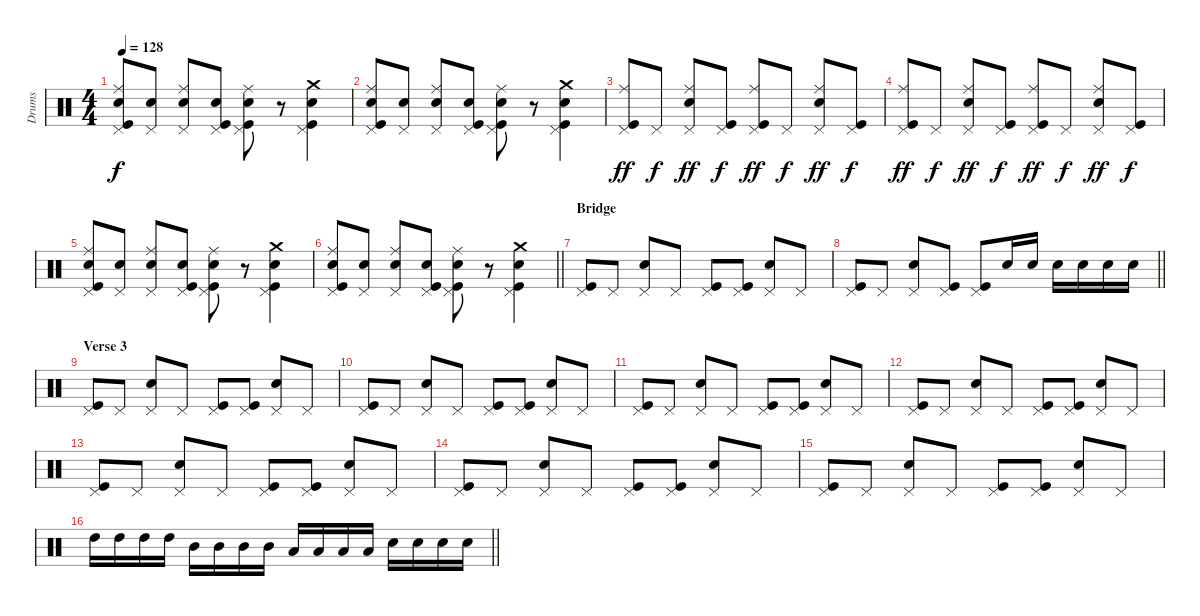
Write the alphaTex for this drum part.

\track ("Drums" "Drums") {instrument percussion}
\staff {score}
\articulation defaults
\ts (4 4)
\tempo 128
\clef neutral
\ks c
("Ride (middle)" "Pedal Hi-Hat (hit)" "Snare (hit) 2" "Kick (hit)").8{dy f} ("Pedal Hi-Hat (hit)" "Snare (hit) 2").8 ("Ride (middle)" "Pedal Hi-Hat (hit)" "Snare (hit) 2").8 ("Pedal Hi-Hat (hit)" "Snare (hit) 2" "Kick (hit)").8 ("Ride (middle)" "Pedal Hi-Hat (hit)" "Snare (hit) 2" "Kick (hit)").8 r.8 ("Crash medium (hit)" "Pedal Hi-Hat (hit)" "Snare (hit) 2" "Kick (hit)").4 |
("Ride (middle)" "Pedal Hi-Hat (hit)" "Snare (hit) 2" "Kick (hit)").8 ("Pedal Hi-Hat (hit)" "Snare (hit) 2").8 ("Ride (middle)" "Pedal Hi-Hat (hit)" "Snare (hit) 2").8 ("Pedal Hi-Hat (hit)" "Snare (hit) 2" "Kick (hit)").8 ("Ride (middle)" "Pedal Hi-Hat (hit)" "Snare (hit) 2" "Kick (hit)").8 r.8 ("Crash medium (hit)" "Pedal Hi-Hat (hit)" "Snare (hit) 2" "Kick (hit)").4 |
("Ride (middle)" "Pedal Hi-Hat (hit)" "Kick (hit)").8{dy ff} "Pedal Hi-Hat (hit)".8{dy f} ("Ride (middle)" "Snare (hit) 2" "Pedal Hi-Hat (hit)").8{dy ff} ("Pedal Hi-Hat (hit)" "Kick (hit)").8{dy f} ("Ride (middle)" "Pedal Hi-Hat (hit)" "Kick (hit)").8{dy ff} "Pedal Hi-Hat (hit)".8{dy f} ("Ride (middle)" "Snare (hit) 2" "Pedal Hi-Hat (hit)").8{dy ff} ("Pedal Hi-Hat (hit)" "Kick (hit)").8{dy f} |
("Ride (middle)" "Pedal Hi-Hat (hit)" "Kick (hit)").8{dy ff} "Pedal Hi-Hat (hit)".8{dy f} ("Ride (middle)" "Snare (hit) 2" "Pedal Hi-Hat (hit)").8{dy ff} ("Pedal Hi-Hat (hit)" "Kick (hit)").8{dy f} ("Ride (middle)" "Pedal Hi-Hat (hit)" "Kick (hit)").8{dy ff} "Pedal Hi-Hat (hit)".8{dy f} ("Ride (middle)" "Snare (hit) 2" "Pedal Hi-Hat (hit)").8{dy ff} ("Pedal Hi-Hat (hit)" "Kick (hit)").8{dy f} |
("Ride (middle)" "Pedal Hi-Hat (hit)" "Snare (hit) 2" "Kick (hit)").8 ("Pedal Hi-Hat (hit)" "Snare (hit) 2").8 ("Ride (middle)" "Pedal Hi-Hat (hit)" "Snare (hit) 2").8 ("Pedal Hi-Hat (hit)" "Snare (hit) 2" "Kick (hit)").8 ("Ride (middle)" "Pedal Hi-Hat (hit)" "Snare (hit) 2" "Kick (hit)").8 r.8 ("Crash medium (hit)" "Pedal Hi-Hat (hit)" "Snare (hit) 2" "Kick (hit)").4 |
\barLineRight lightlight
("Ride (middle)" "Pedal Hi-Hat (hit)" "Snare (hit) 2" "Kick (hit)").8 ("Pedal Hi-Hat (hit)" "Snare (hit) 2").8 ("Ride (middle)" "Pedal Hi-Hat (hit)" "Snare (hit) 2").8 ("Pedal Hi-Hat (hit)" "Snare (hit) 2" "Kick (hit)").8 ("Ride (middle)" "Pedal Hi-Hat (hit)" "Snare (hit) 2" "Kick (hit)").8 r.8 ("Crash medium (hit)" "Pedal Hi-Hat (hit)" "Snare (hit) 2" "Kick (hit)").4 |
\section ("" "Bridge")
("Pedal Hi-Hat (hit)" "Kick (hit)").8 "Pedal Hi-Hat (hit)".8 ("Snare (hit) 2" "Pedal Hi-Hat (hit)").8 "Pedal Hi-Hat (hit)".8 ("Pedal Hi-Hat (hit)" "Kick (hit)").8 ("Pedal Hi-Hat (hit)" "Kick (hit)").8 ("Snare (hit) 2" "Pedal Hi-Hat (hit)").8 "Pedal Hi-Hat (hit)".8 |
\barLineRight lightlight
("Pedal Hi-Hat (hit)" "Kick (hit)").8 "Pedal Hi-Hat (hit)".8 ("Snare (hit) 2" "Pedal Hi-Hat (hit)").8 ("Pedal Hi-Hat (hit)" "Kick (hit)").8 ("Pedal Hi-Hat (hit)" "Kick (hit)").8 "Snare (hit) 2".16 "Snare (hit) 2".16 "Snare (hit) 2".16 "Snare (hit) 2".16 "Snare (hit) 2".16 "Snare (hit) 2".16 |
\section ("" "Verse 3")
("Pedal Hi-Hat (hit)" "Kick (hit)").8 "Pedal Hi-Hat (hit)".8 ("Snare (hit) 2" "Pedal Hi-Hat (hit)").8 "Pedal Hi-Hat (hit)".8 ("Pedal Hi-Hat (hit)" "Kick (hit)").8 ("Pedal Hi-Hat (hit)" "Kick (hit)").8 ("Snare (hit) 2" "Pedal Hi-Hat (hit)").8 "Pedal Hi-Hat (hit)".8 |
("Pedal Hi-Hat (hit)" "Kick (hit)").8 "Pedal Hi-Hat (hit)".8 ("Snare (hit) 2" "Pedal Hi-Hat (hit)").8 "Pedal Hi-Hat (hit)".8 ("Pedal Hi-Hat (hit)" "Kick (hit)").8 ("Pedal Hi-Hat (hit)" "Kick (hit)").8 ("Snare (hit) 2" "Pedal Hi-Hat (hit)").8 "Pedal Hi-Hat (hit)".8 |
("Pedal Hi-Hat (hit)" "Kick (hit)").8 "Pedal Hi-Hat (hit)".8 ("Snare (hit) 2" "Pedal Hi-Hat (hit)").8 "Pedal Hi-Hat (hit)".8 ("Pedal Hi-Hat (hit)" "Kick (hit)").8 ("Pedal Hi-Hat (hit)" "Kick (hit)").8 ("Snare (hit) 2" "Pedal Hi-Hat (hit)").8 "Pedal Hi-Hat (hit)".8 |
("Pedal Hi-Hat (hit)" "Kick (hit)").8 "Pedal Hi-Hat (hit)".8 ("Snare (hit) 2" "Pedal Hi-Hat (hit)").8 "Pedal Hi-Hat (hit)".8 ("Pedal Hi-Hat (hit)" "Kick (hit)").8 ("Pedal Hi-Hat (hit)" "Kick (hit)").8 ("Snare (hit) 2" "Pedal Hi-Hat (hit)").8 "Pedal Hi-Hat (hit)".8 |
("Pedal Hi-Hat (hit)" "Kick (hit)").8 "Pedal Hi-Hat (hit)".8 ("Snare (hit) 2" "Pedal Hi-Hat (hit)").8 "Pedal Hi-Hat (hit)".8 ("Pedal Hi-Hat (hit)" "Kick (hit)").8 ("Pedal Hi-Hat (hit)" "Kick (hit)").8 ("Snare (hit) 2" "Pedal Hi-Hat (hit)").8 "Pedal Hi-Hat (hit)".8 |
("Pedal Hi-Hat (hit)" "Kick (hit)").8 "Pedal Hi-Hat (hit)".8 ("Snare (hit) 2" "Pedal Hi-Hat (hit)").8 "Pedal Hi-Hat (hit)".8 ("Pedal Hi-Hat (hit)" "Kick (hit)").8 ("Pedal Hi-Hat (hit)" "Kick (hit)").8 ("Snare (hit) 2" "Pedal Hi-Hat (hit)").8 "Pedal Hi-Hat (hit)".8 |
("Pedal Hi-Hat (hit)" "Kick (hit)").8 "Pedal Hi-Hat (hit)".8 ("Snare (hit) 2" "Pedal Hi-Hat (hit)").8 "Pedal Hi-Hat (hit)".8 ("Pedal Hi-Hat (hit)" "Kick (hit)").8 ("Pedal Hi-Hat (hit)" "Kick (hit)").8 ("Snare (hit) 2" "Pedal Hi-Hat (hit)").8 "Pedal Hi-Hat (hit)".8 |
\barLineRight lightlight "High Tom (hit)".16 "High Tom (hit)".16 "High Tom (hit)".16 "High Tom (hit)".16 "Mid Tom (hit)".16 "Mid Tom (hit)".16 "Mid Tom (hit)".16 "Mid Tom (hit)".16 "Low Tom (hit)".16 "Low Tom (hit)".16 "Low Tom (hit)".16 "Low Tom (hit)".16 "Snare (hit) 2".16 "Snare (hit) 2".16 "Snare (hit) 2".16 "Snare (hit) 2".16
